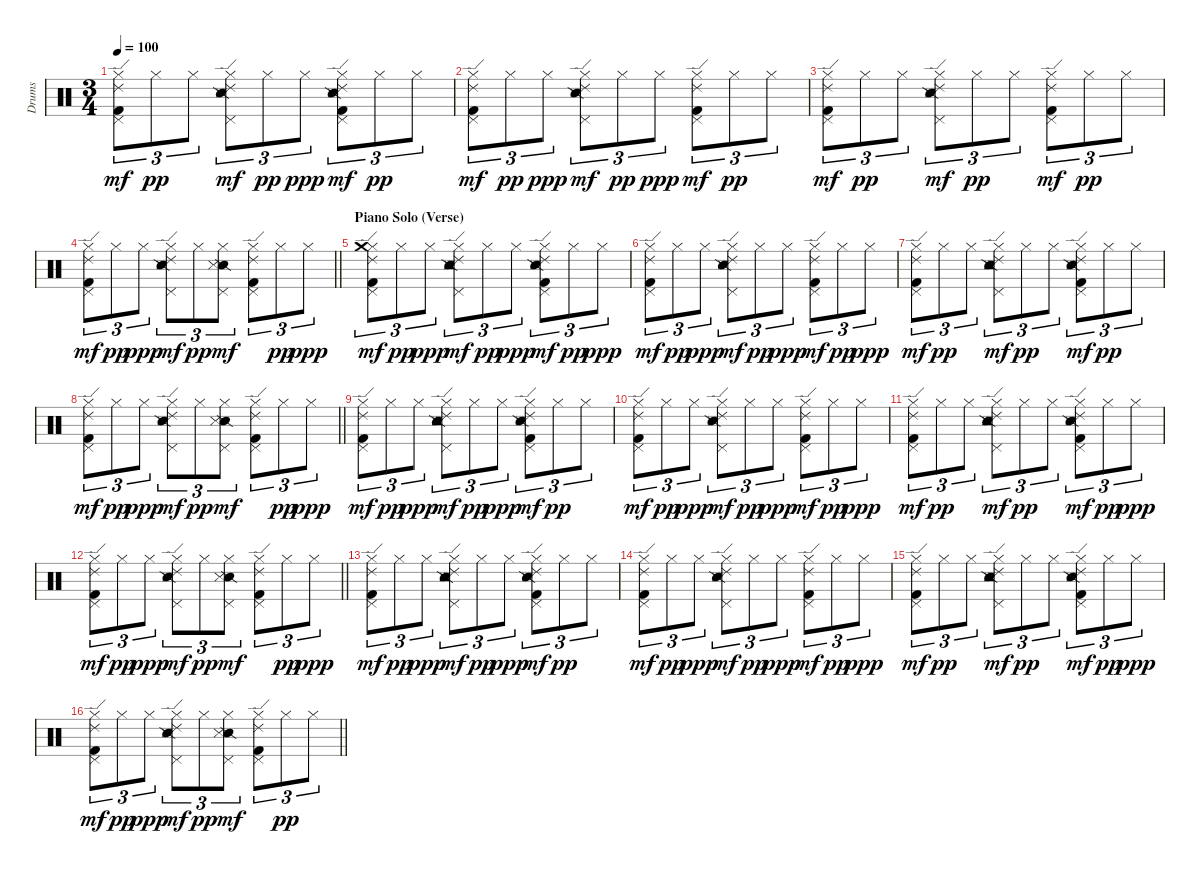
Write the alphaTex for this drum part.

\track ("Drums" "Drums") {instrument percussion}
\staff {score}
\articulation defaults
\ts (3 4)
\tempo 100
\clef neutral
\ks c
("Hi-Hat (closed)" "Ride (edge) 2" "Pedal Hi-Hat (hit)" "Kick (hit) 2").8{tu (3 2) dy mf} "Hi-Hat (closed)".8{tu (3 2) dy pp} "Hi-Hat (closed)".8{tu (3 2)} ("Hi-Hat (closed)" "Ride (edge) 2" "Pedal Hi-Hat (hit)" "Snare (side stick) 2" "Snare (side stick) 3").8{tu (3 2) dy mf} "Hi-Hat (closed)".8{tu (3 2) dy pp} "Hi-Hat (closed)".8{tu (3 2) dy ppp} ("Hi-Hat (closed)" "Ride (edge) 2" "Pedal Hi-Hat (hit)" "Snare (side stick) 2" "Snare (side stick) 3" "Kick (hit) 2").8{tu (3 2) dy mf} "Hi-Hat (closed)".8{tu (3 2) dy pp} "Hi-Hat (closed)".8{tu (3 2)} |
("Hi-Hat (closed)" "Ride (edge) 2" "Pedal Hi-Hat (hit)" "Kick (hit) 2").8{tu (3 2) dy mf} "Hi-Hat (closed)".8{tu (3 2) dy pp} "Hi-Hat (closed)".8{tu (3 2) dy ppp} ("Hi-Hat (closed)" "Ride (edge) 2" "Pedal Hi-Hat (hit)" "Snare (side stick) 2" "Snare (side stick) 3").8{tu (3 2) dy mf} "Hi-Hat (closed)".8{tu (3 2) dy pp} "Hi-Hat (closed)".8{tu (3 2) dy ppp} ("Hi-Hat (closed)" "Ride (edge) 2" "Pedal Hi-Hat (hit)" "Kick (hit) 2").8{tu (3 2) dy mf} "Hi-Hat (closed)".8{tu (3 2) dy pp} "Hi-Hat (closed)".8{tu (3 2)} |
("Hi-Hat (closed)" "Ride (edge) 2" "Pedal Hi-Hat (hit)" "Kick (hit) 2").8{tu (3 2) dy mf} "Hi-Hat (closed)".8{tu (3 2) dy pp} "Hi-Hat (closed)".8{tu (3 2)} ("Hi-Hat (closed)" "Ride (edge) 2" "Pedal Hi-Hat (hit)" "Snare (side stick) 2" "Snare (side stick) 3").8{tu (3 2) dy mf} "Hi-Hat (closed)".8{tu (3 2) dy pp} "Hi-Hat (closed)".8{tu (3 2)} ("Hi-Hat (closed)" "Ride (edge) 2" "Pedal Hi-Hat (hit)" "Kick (hit) 2").8{tu (3 2) dy mf} "Hi-Hat (closed)".8{tu (3 2) dy pp} "Hi-Hat (closed)".8{tu (3 2)} |
\barLineRight lightlight
("Hi-Hat (closed)" "Ride (edge) 2" "Pedal Hi-Hat (hit)" "Kick (hit) 2").8{tu (3 2) dy mf} "Hi-Hat (closed)".8{tu (3 2) dy pp} "Hi-Hat (closed)".8{tu (3 2) dy ppp} ("Hi-Hat (closed)" "Ride (edge) 2" "Pedal Hi-Hat (hit)" "Snare (side stick) 2" "Snare (side stick) 3").8{tu (3 2) dy mf} "Hi-Hat (closed)".8{tu (3 2) dy pp} ("Hi-Hat (closed)" "Pedal Hi-Hat (hit)" "Snare (side stick) 2" "Snare (side stick) 3").8{tu (3 2) dy mf} ("Hi-Hat (closed)" "Ride (edge) 2" "Pedal Hi-Hat (hit)" "Kick (hit) 2").8{tu (3 2)} "Hi-Hat (closed)".8{tu (3 2) dy pp} "Hi-Hat (closed)".8{tu (3 2) dy ppp} |
\section ("" "Piano Solo (Verse)")
("Hi-Hat (closed)" "Ride (edge) 2" "Pedal Hi-Hat (hit)" "Crash medium (hit)" "Kick (hit) 2").8{tu (3 2) dy mf} "Hi-Hat (closed)".8{tu (3 2) dy pp} "Hi-Hat (closed)".8{tu (3 2) dy ppp} ("Hi-Hat (closed)" "Ride (edge) 2" "Pedal Hi-Hat (hit)" "Snare (side stick) 2" "Snare (side stick) 3" "Tambourine (hit)").8{tu (3 2) dy mf} "Hi-Hat (closed)".8{tu (3 2) dy pp} "Hi-Hat (closed)".8{tu (3 2) dy ppp} ("Hi-Hat (closed)" "Ride (edge) 2" "Pedal Hi-Hat (hit)" "Snare (side stick) 2" "Snare (side stick) 3" "Kick (hit) 2").8{tu (3 2) dy mf} "Hi-Hat (closed)".8{tu (3 2) dy pp} "Hi-Hat (closed)".8{tu (3 2) dy ppp} |
("Hi-Hat (closed)" "Ride (edge) 2" "Pedal Hi-Hat (hit)" "Kick (hit) 2").8{tu (3 2) dy mf} "Hi-Hat (closed)".8{tu (3 2) dy pp} "Hi-Hat (closed)".8{tu (3 2) dy ppp} ("Hi-Hat (closed)" "Ride (edge) 2" "Pedal Hi-Hat (hit)" "Snare (side stick) 2" "Snare (side stick) 3").8{tu (3 2) dy mf} "Hi-Hat (closed)".8{tu (3 2) dy pp} "Hi-Hat (closed)".8{tu (3 2) dy ppp} ("Hi-Hat (closed)" "Ride (edge) 2" "Pedal Hi-Hat (hit)" "Kick (hit) 2").8{tu (3 2) dy mf} "Hi-Hat (closed)".8{tu (3 2) dy pp} "Hi-Hat (closed)".8{tu (3 2) dy ppp} |
("Hi-Hat (closed)" "Ride (edge) 2" "Pedal Hi-Hat (hit)" "Kick (hit) 2").8{tu (3 2) dy mf} "Hi-Hat (closed)".8{tu (3 2) dy pp} "Hi-Hat (closed)".8{tu (3 2)} ("Hi-Hat (closed)" "Ride (edge) 2" "Pedal Hi-Hat (hit)" "Snare (side stick) 2" "Snare (side stick) 3" "Tambourine (hit)").8{tu (3 2) dy mf} "Hi-Hat (closed)".8{tu (3 2) dy pp} "Hi-Hat (closed)".8{tu (3 2)} ("Hi-Hat (closed)" "Ride (edge) 2" "Pedal Hi-Hat (hit)" "Snare (side stick) 2" "Snare (side stick) 3" "Kick (hit) 2").8{tu (3 2) dy mf} "Hi-Hat (closed)".8{tu (3 2) dy pp} "Hi-Hat (closed)".8{tu (3 2)} |
\barLineRight lightlight
("Hi-Hat (closed)" "Ride (edge) 2" "Pedal Hi-Hat (hit)" "Kick (hit) 2").8{tu (3 2) dy mf} "Hi-Hat (closed)".8{tu (3 2) dy pp} "Hi-Hat (closed)".8{tu (3 2) dy ppp} ("Hi-Hat (closed)" "Ride (edge) 2" "Pedal Hi-Hat (hit)" "Snare (side stick) 2" "Snare (side stick) 3").8{tu (3 2) dy mf} "Hi-Hat (closed)".8{tu (3 2) dy pp} ("Hi-Hat (closed)" "Pedal Hi-Hat (hit)" "Snare (side stick) 2" "Snare (side stick) 3").8{tu (3 2) dy mf} ("Hi-Hat (closed)" "Ride (edge) 2" "Pedal Hi-Hat (hit)" "Kick (hit) 2").8{tu (3 2)} "Hi-Hat (closed)".8{tu (3 2) dy pp} "Hi-Hat (closed)".8{tu (3 2) dy ppp} |
("Hi-Hat (closed)" "Ride (edge) 2" "Pedal Hi-Hat (hit)" "Kick (hit) 2").8{tu (3 2) dy mf} "Hi-Hat (closed)".8{tu (3 2) dy pp} "Hi-Hat (closed)".8{tu (3 2) dy ppp} ("Hi-Hat (closed)" "Ride (edge) 2" "Pedal Hi-Hat (hit)" "Snare (side stick) 2" "Snare (side stick) 3" "Tambourine (hit)").8{tu (3 2) dy mf} "Hi-Hat (closed)".8{tu (3 2) dy pp} "Hi-Hat (closed)".8{tu (3 2) dy ppp} ("Hi-Hat (closed)" "Ride (edge) 2" "Pedal Hi-Hat (hit)" "Snare (side stick) 2" "Snare (side stick) 3" "Kick (hit) 2").8{tu (3 2) dy mf} "Hi-Hat (closed)".8{tu (3 2) dy pp} "Hi-Hat (closed)".8{tu (3 2)} |
("Hi-Hat (closed)" "Ride (edge) 2" "Pedal Hi-Hat (hit)" "Kick (hit) 2").8{tu (3 2) dy mf} "Hi-Hat (closed)".8{tu (3 2) dy pp} "Hi-Hat (closed)".8{tu (3 2) dy ppp} ("Hi-Hat (closed)" "Ride (edge) 2" "Pedal Hi-Hat (hit)" "Snare (side stick) 2" "Snare (side stick) 3").8{tu (3 2) dy mf} "Hi-Hat (closed)".8{tu (3 2) dy pp} "Hi-Hat (closed)".8{tu (3 2) dy ppp} ("Hi-Hat (closed)" "Ride (edge) 2" "Pedal Hi-Hat (hit)" "Kick (hit) 2").8{tu (3 2) dy mf} "Hi-Hat (closed)".8{tu (3 2) dy pp} "Hi-Hat (closed)".8{tu (3 2) dy ppp} |
("Hi-Hat (closed)" "Ride (edge) 2" "Pedal Hi-Hat (hit)" "Kick (hit) 2").8{tu (3 2) dy mf} "Hi-Hat (closed)".8{tu (3 2) dy pp} "Hi-Hat (closed)".8{tu (3 2)} ("Hi-Hat (closed)" "Ride (edge) 2" "Pedal Hi-Hat (hit)" "Snare (side stick) 2" "Snare (side stick) 3" "Tambourine (hit)").8{tu (3 2) dy mf} "Hi-Hat (closed)".8{tu (3 2) dy pp} "Hi-Hat (closed)".8{tu (3 2)} ("Hi-Hat (closed)" "Ride (edge) 2" "Pedal Hi-Hat (hit)" "Snare (side stick) 2" "Snare (side stick) 3" "Kick (hit) 2").8{tu (3 2) dy mf} "Hi-Hat (closed)".8{tu (3 2) dy pp} "Hi-Hat (closed)".8{tu (3 2) dy ppp} |
\barLineRight lightlight
("Hi-Hat (closed)" "Ride (edge) 2" "Pedal Hi-Hat (hit)" "Kick (hit) 2").8{tu (3 2) dy mf} "Hi-Hat (closed)".8{tu (3 2) dy pp} "Hi-Hat (closed)".8{tu (3 2) dy ppp} ("Hi-Hat (closed)" "Ride (edge) 2" "Pedal Hi-Hat (hit)" "Snare (side stick) 2" "Snare (side stick) 3").8{tu (3 2) dy mf} "Hi-Hat (closed)".8{tu (3 2) dy pp} ("Hi-Hat (closed)" "Pedal Hi-Hat (hit)" "Snare (side stick) 2" "Snare (side stick) 3").8{tu (3 2) dy mf} ("Hi-Hat (closed)" "Ride (edge) 2" "Pedal Hi-Hat (hit)" "Kick (hit) 2").8{tu (3 2)} "Hi-Hat (closed)".8{tu (3 2) dy pp} "Hi-Hat (closed)".8{tu (3 2) dy ppp} |
("Hi-Hat (closed)" "Ride (edge) 2" "Pedal Hi-Hat (hit)" "Kick (hit) 2").8{tu (3 2) dy mf} "Hi-Hat (closed)".8{tu (3 2) dy pp} "Hi-Hat (closed)".8{tu (3 2) dy ppp} ("Hi-Hat (closed)" "Ride (edge) 2" "Pedal Hi-Hat (hit)" "Snare (side stick) 2" "Snare (side stick) 3" "Tambourine (hit)").8{tu (3 2) dy mf} "Hi-Hat (closed)".8{tu (3 2) dy pp} "Hi-Hat (closed)".8{tu (3 2) dy ppp} ("Hi-Hat (closed)" "Ride (edge) 2" "Pedal Hi-Hat (hit)" "Snare (side stick) 2" "Snare (side stick) 3" "Kick (hit) 2").8{tu (3 2) dy mf} "Hi-Hat (closed)".8{tu (3 2) dy pp} "Hi-Hat (closed)".8{tu (3 2)} |
("Hi-Hat (closed)" "Ride (edge) 2" "Pedal Hi-Hat (hit)" "Kick (hit) 2").8{tu (3 2) dy mf} "Hi-Hat (closed)".8{tu (3 2) dy pp} "Hi-Hat (closed)".8{tu (3 2) dy ppp} ("Hi-Hat (closed)" "Ride (edge) 2" "Pedal Hi-Hat (hit)" "Snare (side stick) 2" "Snare (side stick) 3").8{tu (3 2) dy mf} "Hi-Hat (closed)".8{tu (3 2) dy pp} "Hi-Hat (closed)".8{tu (3 2) dy ppp} ("Hi-Hat (closed)" "Ride (edge) 2" "Pedal Hi-Hat (hit)" "Kick (hit) 2").8{tu (3 2) dy mf} "Hi-Hat (closed)".8{tu (3 2) dy pp} "Hi-Hat (closed)".8{tu (3 2) dy ppp} |
("Hi-Hat (closed)" "Ride (edge) 2" "Pedal Hi-Hat (hit)" "Kick (hit) 2").8{tu (3 2) dy mf} "Hi-Hat (closed)".8{tu (3 2) dy pp} "Hi-Hat (closed)".8{tu (3 2)} ("Hi-Hat (closed)" "Ride (edge) 2" "Pedal Hi-Hat (hit)" "Snare (side stick) 2" "Snare (side stick) 3" "Tambourine (hit)").8{tu (3 2) dy mf} "Hi-Hat (closed)".8{tu (3 2) dy pp} "Hi-Hat (closed)".8{tu (3 2)} ("Hi-Hat (closed)" "Ride (edge) 2" "Pedal Hi-Hat (hit)" "Snare (side stick) 2" "Snare (side stick) 3" "Kick (hit) 2").8{tu (3 2) dy mf} "Hi-Hat (closed)".8{tu (3 2) dy pp} "Hi-Hat (closed)".8{tu (3 2) dy ppp} |
\barLineRight lightlight
("Hi-Hat (closed)" "Ride (edge) 2" "Pedal Hi-Hat (hit)" "Kick (hit) 2").8{tu (3 2) dy mf} "Hi-Hat (closed)".8{tu (3 2) dy pp} "Hi-Hat (closed)".8{tu (3 2) dy ppp} ("Hi-Hat (closed)" "Ride (edge) 2" "Pedal Hi-Hat (hit)" "Snare (side stick) 2" "Snare (side stick) 3").8{tu (3 2) dy mf} "Hi-Hat (closed)".8{tu (3 2) dy pp} ("Hi-Hat (closed)" "Pedal Hi-Hat (hit)" "Snare (side stick) 2" "Snare (side stick) 3").8{tu (3 2) dy mf} ("Hi-Hat (closed)" "Ride (edge) 2" "Pedal Hi-Hat (hit)" "Kick (hit) 2").8{tu (3 2)} "Hi-Hat (closed)".8{tu (3 2) dy pp} "Hi-Hat (closed)".8{tu (3 2)}
